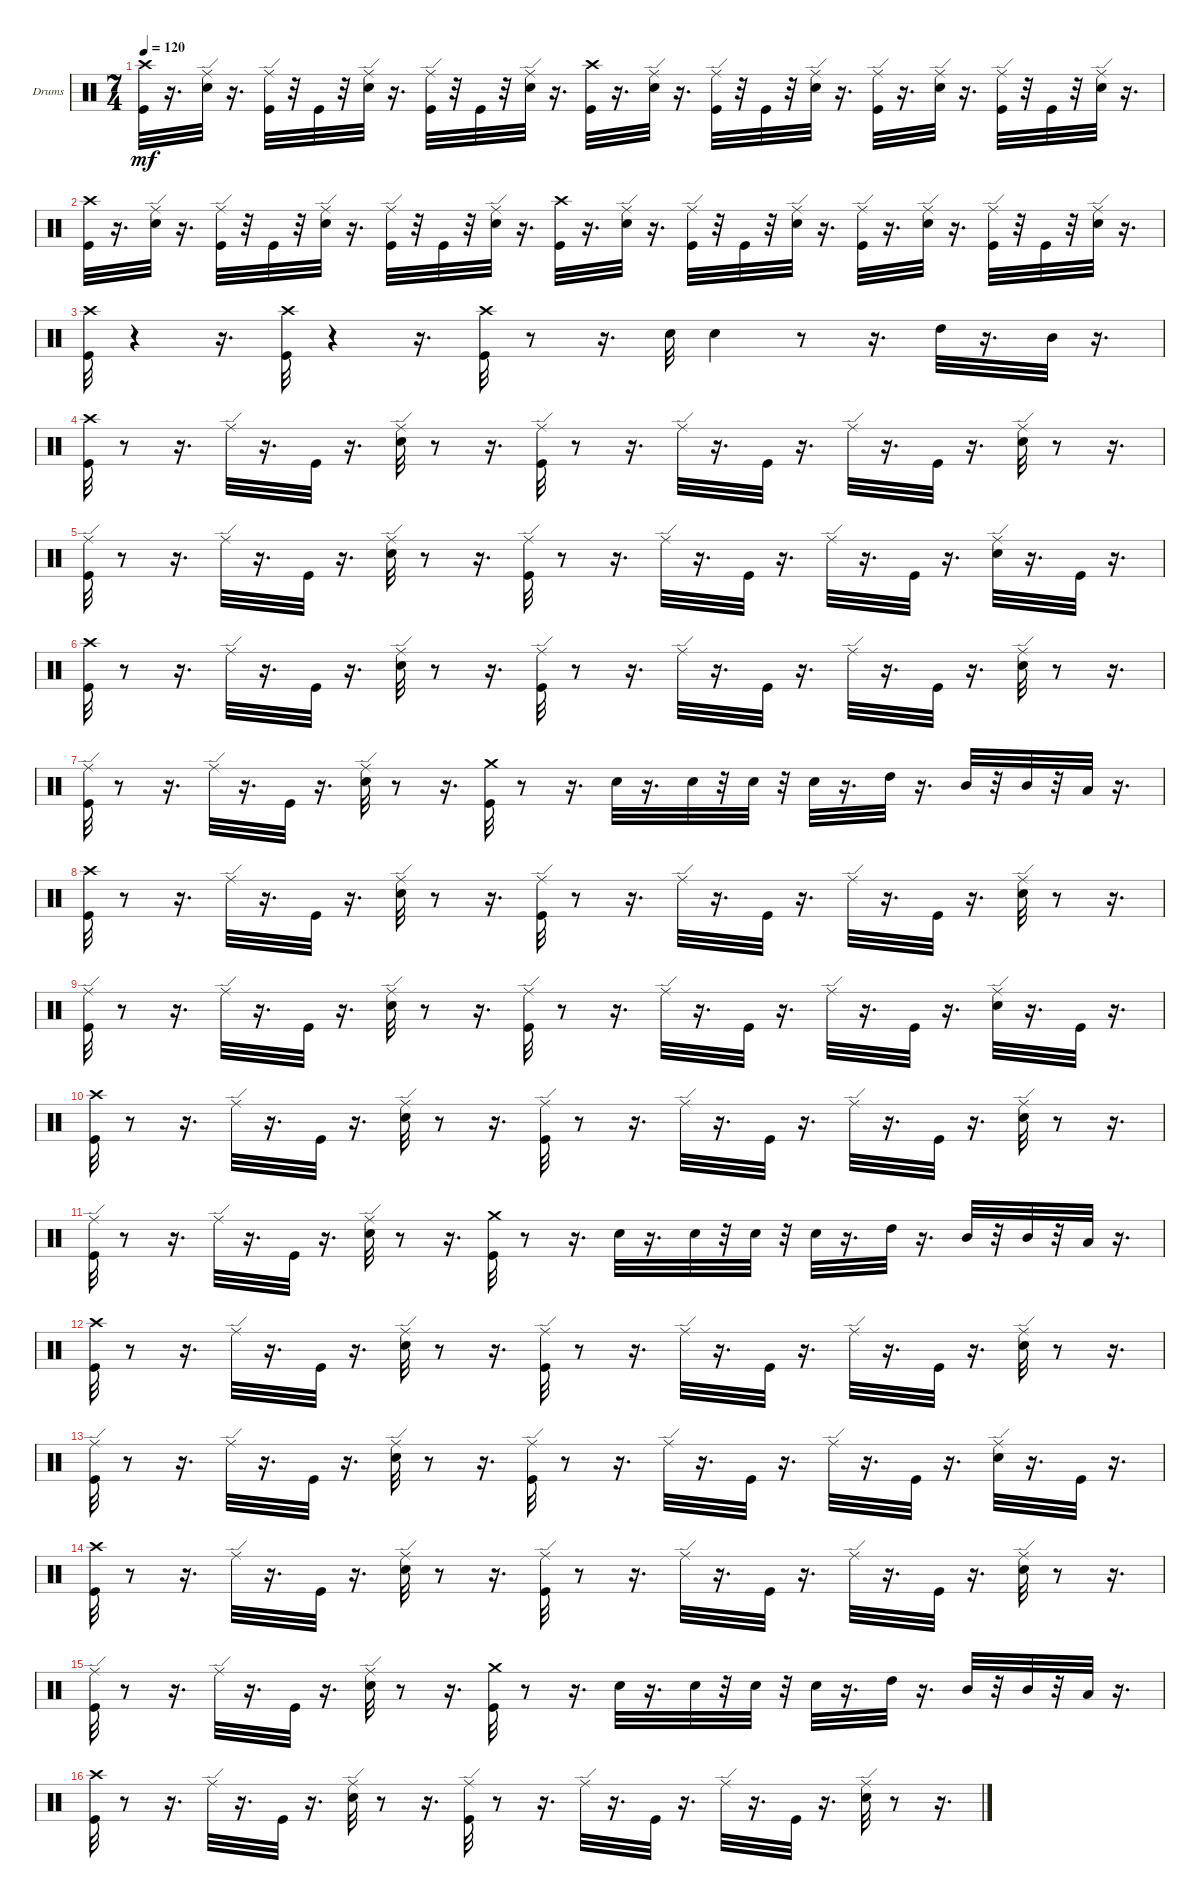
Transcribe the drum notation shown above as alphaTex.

\bracketExtendMode groupsimilarinstruments
\firstSystemTrackNameOrientation horizontal
\otherSystemsTrackNameOrientation horizontal
\track ("" "Drums") {instrument percussion}
\staff {score}
\articulation defaults
\ts (7 4)
\tempo 120
\clef neutral
\ks c
("Crash high (hit)" "Kick (hit)").32{dy mf} r.16{d} ("Snare (hit) 2" "Ride (edge)").32 r.16{d} ("Kick (hit)" "Ride (edge)").32 r.32 "Kick (hit)".32 r.32 ("Snare (hit) 2" "Ride (edge)").32 r.16{d} ("Kick (hit)" "Ride (edge)").32 r.32 "Kick (hit)".32 r.32 ("Ride (edge)" "Snare (hit) 2").32 r.16{d} ("Crash high (hit)" "Kick (hit)").32 r.16{d} ("Snare (hit) 2" "Ride (edge)").32 r.16{d} ("Kick (hit)" "Ride (edge)").32 r.32 "Kick (hit)".32 r.32 ("Snare (hit) 2" "Ride (edge)").32 r.16{d} ("Kick (hit)" "Ride (edge)").32 r.16{d} ("Snare (hit) 2" "Ride (edge)").32 r.16{d} ("Kick (hit)" "Ride (edge)").32 r.32 "Kick (hit)".32 r.32 ("Snare (hit) 2" "Ride (edge)").32 r.16{d} |
("Crash high (hit)" "Kick (hit)").32 r.16{d} ("Snare (hit) 2" "Ride (edge)").32 r.16{d} ("Kick (hit)" "Ride (edge)").32 r.32 "Kick (hit)".32 r.32 ("Snare (hit) 2" "Ride (edge)").32 r.16{d} ("Kick (hit)" "Ride (edge)").32 r.32 "Kick (hit)".32 r.32 ("Ride (edge)" "Snare (hit) 2").32 r.16{d} ("Crash high (hit)" "Kick (hit)").32 r.16{d} ("Snare (hit) 2" "Ride (edge)").32 r.16{d} ("Kick (hit)" "Ride (edge)").32 r.32 "Kick (hit)".32 r.32 ("Snare (hit) 2" "Ride (edge)").32 r.16{d} ("Kick (hit)" "Ride (edge)").32 r.16{d} ("Snare (hit) 2" "Ride (edge)").32 r.16{d} ("Kick (hit)" "Ride (edge)").32 r.32 "Kick (hit)".32 r.32 ("Snare (hit) 2" "Ride (edge)").32 r.16{d} |
("Crash high (hit)" "Kick (hit)").32 r.4 r.16{d} ("Crash high (hit)" "Kick (hit)").32 r.4 r.16{d} ("Crash high (hit)" "Kick (hit)").32 r.8 r.16{d} "Snare (hit) 2".32 "Snare (hit) 2".4 r.8 r.16{d} "High Tom (hit)".32 r.16{d} "Mid Tom (hit)".32 r.16{d} |
("Crash high (hit)" "Kick (hit)").32 r.8 r.16{d} "Ride (edge)".32 r.16{d} "Kick (hit)".32 r.16{d} ("Snare (hit) 2" "Ride (edge)").32 r.8 r.16{d} ("Kick (hit)" "Ride (edge)").32 r.8 r.16{d} "Ride (edge)".32 r.16{d} "Kick (hit)".32 r.16{d} "Ride (edge)".32 r.16{d} "Kick (hit)".32 r.16{d} ("Snare (hit) 2" "Ride (edge)").32 r.8 r.16{d} |
("Ride (edge)" "Kick (hit)").32 r.8 r.16{d} "Ride (edge)".32 r.16{d} "Kick (hit)".32 r.16{d} ("Snare (hit) 2" "Ride (edge)").32 r.8 r.16{d} ("Kick (hit)" "Ride (edge)").32 r.8 r.16{d} "Ride (edge)".32 r.16{d} "Kick (hit)".32 r.16{d} "Ride (edge)".32 r.16{d} "Kick (hit)".32 r.16{d} ("Snare (hit) 2" "Ride (edge)").32 r.16{d} "Kick (hit)".32 r.16{d} |
("Crash high (hit)" "Kick (hit)").32 r.8 r.16{d} "Ride (edge)".32 r.16{d} "Kick (hit)".32 r.16{d} ("Snare (hit) 2" "Ride (edge)").32 r.8 r.16{d} ("Kick (hit)" "Ride (edge)").32 r.8 r.16{d} "Ride (edge)".32 r.16{d} "Kick (hit)".32 r.16{d} "Ride (edge)".32 r.16{d} "Kick (hit)".32 r.16{d} ("Snare (hit) 2" "Ride (edge)").32 r.8 r.16{d} |
("Ride (edge)" "Kick (hit)").32 r.8 r.16{d} "Ride (edge)".32 r.16{d} "Kick (hit)".32 r.16{d} ("Snare (hit) 2" "Ride (edge)").32 r.8 r.16{d} ("Crash medium (hit)" "Kick (hit)").32 r.8 r.16{d} "Snare (hit) 2".32 r.16{d} "Snare (hit) 2".32 r.32 "Snare (hit) 2".32 r.32 "Snare (hit) 2".32 r.16{d} "High Tom (hit)".32 r.16{d} "Mid Tom (hit)".32 r.32 "Mid Tom (hit)".32 r.32 "Low Tom (hit)".32 r.16{d} |
("Crash high (hit)" "Kick (hit)").32 r.8 r.16{d} "Ride (edge)".32 r.16{d} "Kick (hit)".32 r.16{d} ("Snare (hit) 2" "Ride (edge)").32 r.8 r.16{d} ("Kick (hit)" "Ride (edge)").32 r.8 r.16{d} "Ride (edge)".32 r.16{d} "Kick (hit)".32 r.16{d} "Ride (edge)".32 r.16{d} "Kick (hit)".32 r.16{d} ("Snare (hit) 2" "Ride (edge)").32 r.8 r.16{d} |
("Ride (edge)" "Kick (hit)").32 r.8 r.16{d} "Ride (edge)".32 r.16{d} "Kick (hit)".32 r.16{d} ("Snare (hit) 2" "Ride (edge)").32 r.8 r.16{d} ("Kick (hit)" "Ride (edge)").32 r.8 r.16{d} "Ride (edge)".32 r.16{d} "Kick (hit)".32 r.16{d} "Ride (edge)".32 r.16{d} "Kick (hit)".32 r.16{d} ("Snare (hit) 2" "Ride (edge)").32 r.16{d} "Kick (hit)".32 r.16{d} |
("Crash high (hit)" "Kick (hit)").32 r.8 r.16{d} "Ride (edge)".32 r.16{d} "Kick (hit)".32 r.16{d} ("Snare (hit) 2" "Ride (edge)").32 r.8 r.16{d} ("Kick (hit)" "Ride (edge)").32 r.8 r.16{d} "Ride (edge)".32 r.16{d} "Kick (hit)".32 r.16{d} "Ride (edge)".32 r.16{d} "Kick (hit)".32 r.16{d} ("Snare (hit) 2" "Ride (edge)").32 r.8 r.16{d} |
("Ride (edge)" "Kick (hit)").32 r.8 r.16{d} "Ride (edge)".32 r.16{d} "Kick (hit)".32 r.16{d} ("Snare (hit) 2" "Ride (edge)").32 r.8 r.16{d} ("Crash medium (hit)" "Kick (hit)").32 r.8 r.16{d} "Snare (hit) 2".32 r.16{d} "Snare (hit) 2".32 r.32 "Snare (hit) 2".32 r.32 "Snare (hit) 2".32 r.16{d} "High Tom (hit)".32 r.16{d} "Mid Tom (hit)".32 r.32 "Mid Tom (hit)".32 r.32 "Low Tom (hit)".32 r.16{d} |
("Crash high (hit)" "Kick (hit)").32 r.8 r.16{d} "Ride (edge)".32 r.16{d} "Kick (hit)".32 r.16{d} ("Snare (hit) 2" "Ride (edge)").32 r.8 r.16{d} ("Kick (hit)" "Ride (edge)").32 r.8 r.16{d} "Ride (edge)".32 r.16{d} "Kick (hit)".32 r.16{d} "Ride (edge)".32 r.16{d} "Kick (hit)".32 r.16{d} ("Snare (hit) 2" "Ride (edge)").32 r.8 r.16{d} |
("Ride (edge)" "Kick (hit)").32 r.8 r.16{d} "Ride (edge)".32 r.16{d} "Kick (hit)".32 r.16{d} ("Snare (hit) 2" "Ride (edge)").32 r.8 r.16{d} ("Kick (hit)" "Ride (edge)").32 r.8 r.16{d} "Ride (edge)".32 r.16{d} "Kick (hit)".32 r.16{d} "Ride (edge)".32 r.16{d} "Kick (hit)".32 r.16{d} ("Snare (hit) 2" "Ride (edge)").32 r.16{d} "Kick (hit)".32 r.16{d} |
("Crash high (hit)" "Kick (hit)").32 r.8 r.16{d} "Ride (edge)".32 r.16{d} "Kick (hit)".32 r.16{d} ("Snare (hit) 2" "Ride (edge)").32 r.8 r.16{d} ("Kick (hit)" "Ride (edge)").32 r.8 r.16{d} "Ride (edge)".32 r.16{d} "Kick (hit)".32 r.16{d} "Ride (edge)".32 r.16{d} "Kick (hit)".32 r.16{d} ("Snare (hit) 2" "Ride (edge)").32 r.8 r.16{d} |
("Ride (edge)" "Kick (hit)").32 r.8 r.16{d} "Ride (edge)".32 r.16{d} "Kick (hit)".32 r.16{d} ("Snare (hit) 2" "Ride (edge)").32 r.8 r.16{d} ("Crash medium (hit)" "Kick (hit)").32 r.8 r.16{d} "Snare (hit) 2".32 r.16{d} "Snare (hit) 2".32 r.32 "Snare (hit) 2".32 r.32 "Snare (hit) 2".32 r.16{d} "High Tom (hit)".32 r.16{d} "Mid Tom (hit)".32 r.32 "Mid Tom (hit)".32 r.32 "Low Tom (hit)".32 r.16{d} |
("Crash high (hit)" "Kick (hit)").32 r.8 r.16{d} "Ride (edge)".32 r.16{d} "Kick (hit)".32 r.16{d} ("Snare (hit) 2" "Ride (edge)").32 r.8 r.16{d} ("Kick (hit)" "Ride (edge)").32 r.8 r.16{d} "Ride (edge)".32 r.16{d} "Kick (hit)".32 r.16{d} "Ride (edge)".32 r.16{d} "Kick (hit)".32 r.16{d} ("Snare (hit) 2" "Ride (edge)").32 r.8 r.16{d}
